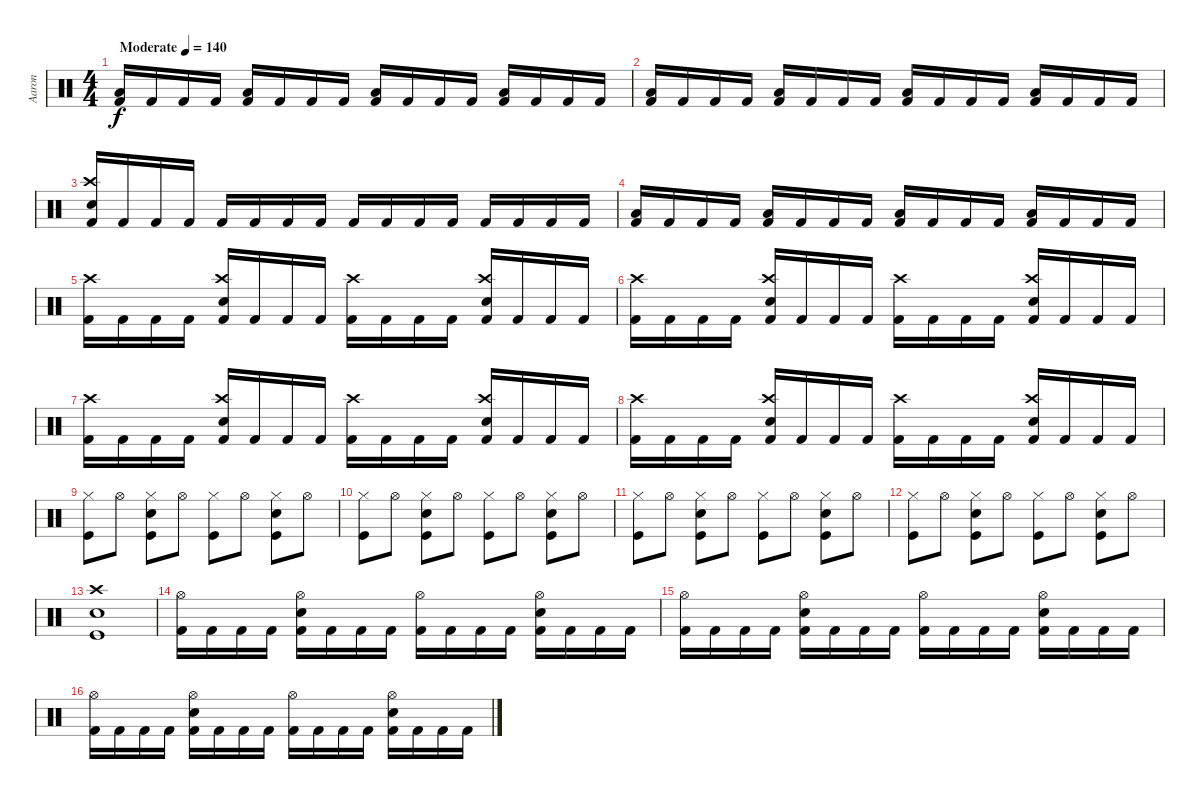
\track ("Aaron" "Aaron") {instrument percussion}
\staff {score}
\articulation defaults
\ts (4 4)
\tempo (140 "Moderate")
\clef neutral
\ks c
("Low Floor Tom (hit)" "Kick (hit) 2").16{dy f} "Kick (hit) 2".16 "Kick (hit) 2".16 "Kick (hit) 2".16 ("Low Floor Tom (hit)" "Kick (hit) 2").16 "Kick (hit) 2".16 "Kick (hit) 2".16 "Kick (hit) 2".16 ("Low Floor Tom (hit)" "Kick (hit) 2").16 "Kick (hit) 2".16 "Kick (hit) 2".16 "Kick (hit) 2".16 ("Low Floor Tom (hit)" "Kick (hit) 2").16 "Kick (hit) 2".16 "Kick (hit) 2".16 "Kick (hit) 2".16 |
("Low Floor Tom (hit)" "Kick (hit) 2").16 "Kick (hit) 2".16 "Kick (hit) 2".16 "Kick (hit) 2".16 ("Low Floor Tom (hit)" "Kick (hit) 2").16 "Kick (hit) 2".16 "Kick (hit) 2".16 "Kick (hit) 2".16 ("Low Floor Tom (hit)" "Kick (hit) 2").16 "Kick (hit) 2".16 "Kick (hit) 2".16 "Kick (hit) 2".16 ("Low Floor Tom (hit)" "Kick (hit) 2").16 "Kick (hit) 2".16 "Kick (hit) 2".16 "Kick (hit) 2".16 |
("Crash high (hit)" "Snare (hit) 2" "Kick (hit) 2").16 "Kick (hit) 2".16 "Kick (hit) 2".16 "Kick (hit) 2".16 "Kick (hit) 2".16 "Kick (hit) 2".16 "Kick (hit) 2".16 "Kick (hit) 2".16 "Kick (hit) 2".16 "Kick (hit) 2".16 "Kick (hit) 2".16 "Kick (hit) 2".16 "Kick (hit) 2".16 "Kick (hit) 2".16 "Kick (hit) 2".16 "Kick (hit) 2".16 |
("Low Floor Tom (hit)" "Kick (hit) 2").16 "Kick (hit) 2".16 "Kick (hit) 2".16 "Kick (hit) 2".16 ("Low Floor Tom (hit)" "Kick (hit) 2").16 "Kick (hit) 2".16 "Kick (hit) 2".16 "Kick (hit) 2".16 ("Low Floor Tom (hit)" "Kick (hit) 2").16 "Kick (hit) 2".16 "Kick (hit) 2".16 "Kick (hit) 2".16 ("Low Floor Tom (hit)" "Kick (hit) 2").16 "Kick (hit) 2".16 "Kick (hit) 2".16 "Kick (hit) 2".16 |
("Crash high (hit)" "Kick (hit) 2").16 "Kick (hit) 2".16 "Kick (hit) 2".16 "Kick (hit) 2".16 ("Crash high (hit)" "Snare (hit) 2" "Kick (hit) 2").16 "Kick (hit) 2".16 "Kick (hit) 2".16 "Kick (hit) 2".16 ("Crash high (hit)" "Kick (hit) 2").16 "Kick (hit) 2".16 "Kick (hit) 2".16 "Kick (hit) 2".16 ("Crash high (hit)" "Snare (hit) 2" "Kick (hit) 2").16 "Kick (hit) 2".16 "Kick (hit) 2".16 "Kick (hit) 2".16 |
("Crash high (hit)" "Kick (hit) 2").16 "Kick (hit) 2".16 "Kick (hit) 2".16 "Kick (hit) 2".16 ("Crash high (hit)" "Snare (hit) 2" "Kick (hit) 2").16 "Kick (hit) 2".16 "Kick (hit) 2".16 "Kick (hit) 2".16 ("Crash high (hit)" "Kick (hit) 2").16 "Kick (hit) 2".16 "Kick (hit) 2".16 "Kick (hit) 2".16 ("Crash high (hit)" "Snare (hit) 2" "Kick (hit) 2").16 "Kick (hit) 2".16 "Kick (hit) 2".16 "Kick (hit) 2".16 |
("Crash high (hit)" "Kick (hit) 2").16 "Kick (hit) 2".16 "Kick (hit) 2".16 "Kick (hit) 2".16 ("Crash high (hit)" "Snare (hit) 2" "Kick (hit) 2").16 "Kick (hit) 2".16 "Kick (hit) 2".16 "Kick (hit) 2".16 ("Crash high (hit)" "Kick (hit) 2").16 "Kick (hit) 2".16 "Kick (hit) 2".16 "Kick (hit) 2".16 ("Crash high (hit)" "Snare (hit) 2" "Kick (hit) 2").16 "Kick (hit) 2".16 "Kick (hit) 2".16 "Kick (hit) 2".16 |
("Crash high (hit)" "Kick (hit) 2").16 "Kick (hit) 2".16 "Kick (hit) 2".16 "Kick (hit) 2".16 ("Crash high (hit)" "Snare (hit) 2" "Kick (hit) 2").16 "Kick (hit) 2".16 "Kick (hit) 2".16 "Kick (hit) 2".16 ("Crash high (hit)" "Kick (hit) 2").16 "Kick (hit) 2".16 "Kick (hit) 2".16 "Kick (hit) 2".16 ("Crash high (hit)" "Snare (hit) 2" "Kick (hit) 2").16 "Kick (hit) 2".16 "Kick (hit) 2".16 "Kick (hit) 2".16 |
("Hi-Hat (closed)" "Kick (hit)").8 "Hi-Hat (open)".8 ("Hi-Hat (closed)" "Snare (hit) 2" "Kick (hit)").8 "Hi-Hat (open)".8 ("Hi-Hat (closed)" "Kick (hit)").8 "Hi-Hat (open)".8 ("Hi-Hat (closed)" "Snare (hit) 2" "Kick (hit)").8 "Hi-Hat (open)".8 |
("Hi-Hat (closed)" "Kick (hit)").8 "Hi-Hat (open)".8 ("Hi-Hat (closed)" "Snare (hit) 2" "Kick (hit)").8 "Hi-Hat (open)".8 ("Hi-Hat (closed)" "Kick (hit)").8 "Hi-Hat (open)".8 ("Hi-Hat (closed)" "Snare (hit) 2" "Kick (hit)").8 "Hi-Hat (open)".8 |
("Hi-Hat (closed)" "Kick (hit)").8 "Hi-Hat (open)".8 ("Hi-Hat (closed)" "Snare (hit) 2" "Kick (hit)").8 "Hi-Hat (open)".8 ("Hi-Hat (closed)" "Kick (hit)").8 "Hi-Hat (open)".8 ("Hi-Hat (closed)" "Snare (hit) 2" "Kick (hit)").8 "Hi-Hat (open)".8 |
("Hi-Hat (closed)" "Kick (hit)").8 "Hi-Hat (open)".8 ("Hi-Hat (closed)" "Snare (hit) 2" "Kick (hit)").8 "Hi-Hat (open)".8 ("Hi-Hat (closed)" "Kick (hit)").8 "Hi-Hat (open)".8 ("Hi-Hat (closed)" "Snare (hit) 2" "Kick (hit)").8 "Hi-Hat (open)".8 |
("Crash high (hit)" "Kick (hit)" "Snare (hit) 2").1 |
("Hi-Hat (open)" "Kick (hit) 2").16 "Kick (hit) 2".16 "Kick (hit) 2".16 "Kick (hit) 2".16 ("Hi-Hat (open)" "Snare (hit) 2" "Kick (hit) 2").16 "Kick (hit) 2".16 "Kick (hit) 2".16 "Kick (hit) 2".16 ("Hi-Hat (open)" "Kick (hit) 2").16 "Kick (hit) 2".16 "Kick (hit) 2".16 "Kick (hit) 2".16 ("Hi-Hat (open)" "Snare (hit) 2" "Kick (hit) 2").16 "Kick (hit) 2".16 "Kick (hit) 2".16 "Kick (hit) 2".16 |
("Hi-Hat (open)" "Kick (hit) 2").16 "Kick (hit) 2".16 "Kick (hit) 2".16 "Kick (hit) 2".16 ("Hi-Hat (open)" "Snare (hit) 2" "Kick (hit) 2").16 "Kick (hit) 2".16 "Kick (hit) 2".16 "Kick (hit) 2".16 ("Hi-Hat (open)" "Kick (hit) 2").16 "Kick (hit) 2".16 "Kick (hit) 2".16 "Kick (hit) 2".16 ("Hi-Hat (open)" "Snare (hit) 2" "Kick (hit) 2").16 "Kick (hit) 2".16 "Kick (hit) 2".16 "Kick (hit) 2".16 |
("Hi-Hat (open)" "Kick (hit) 2").16 "Kick (hit) 2".16 "Kick (hit) 2".16 "Kick (hit) 2".16 ("Hi-Hat (open)" "Snare (hit) 2" "Kick (hit) 2").16 "Kick (hit) 2".16 "Kick (hit) 2".16 "Kick (hit) 2".16 ("Hi-Hat (open)" "Kick (hit) 2").16 "Kick (hit) 2".16 "Kick (hit) 2".16 "Kick (hit) 2".16 ("Hi-Hat (open)" "Snare (hit) 2" "Kick (hit) 2").16 "Kick (hit) 2".16 "Kick (hit) 2".16 "Kick (hit) 2".16
